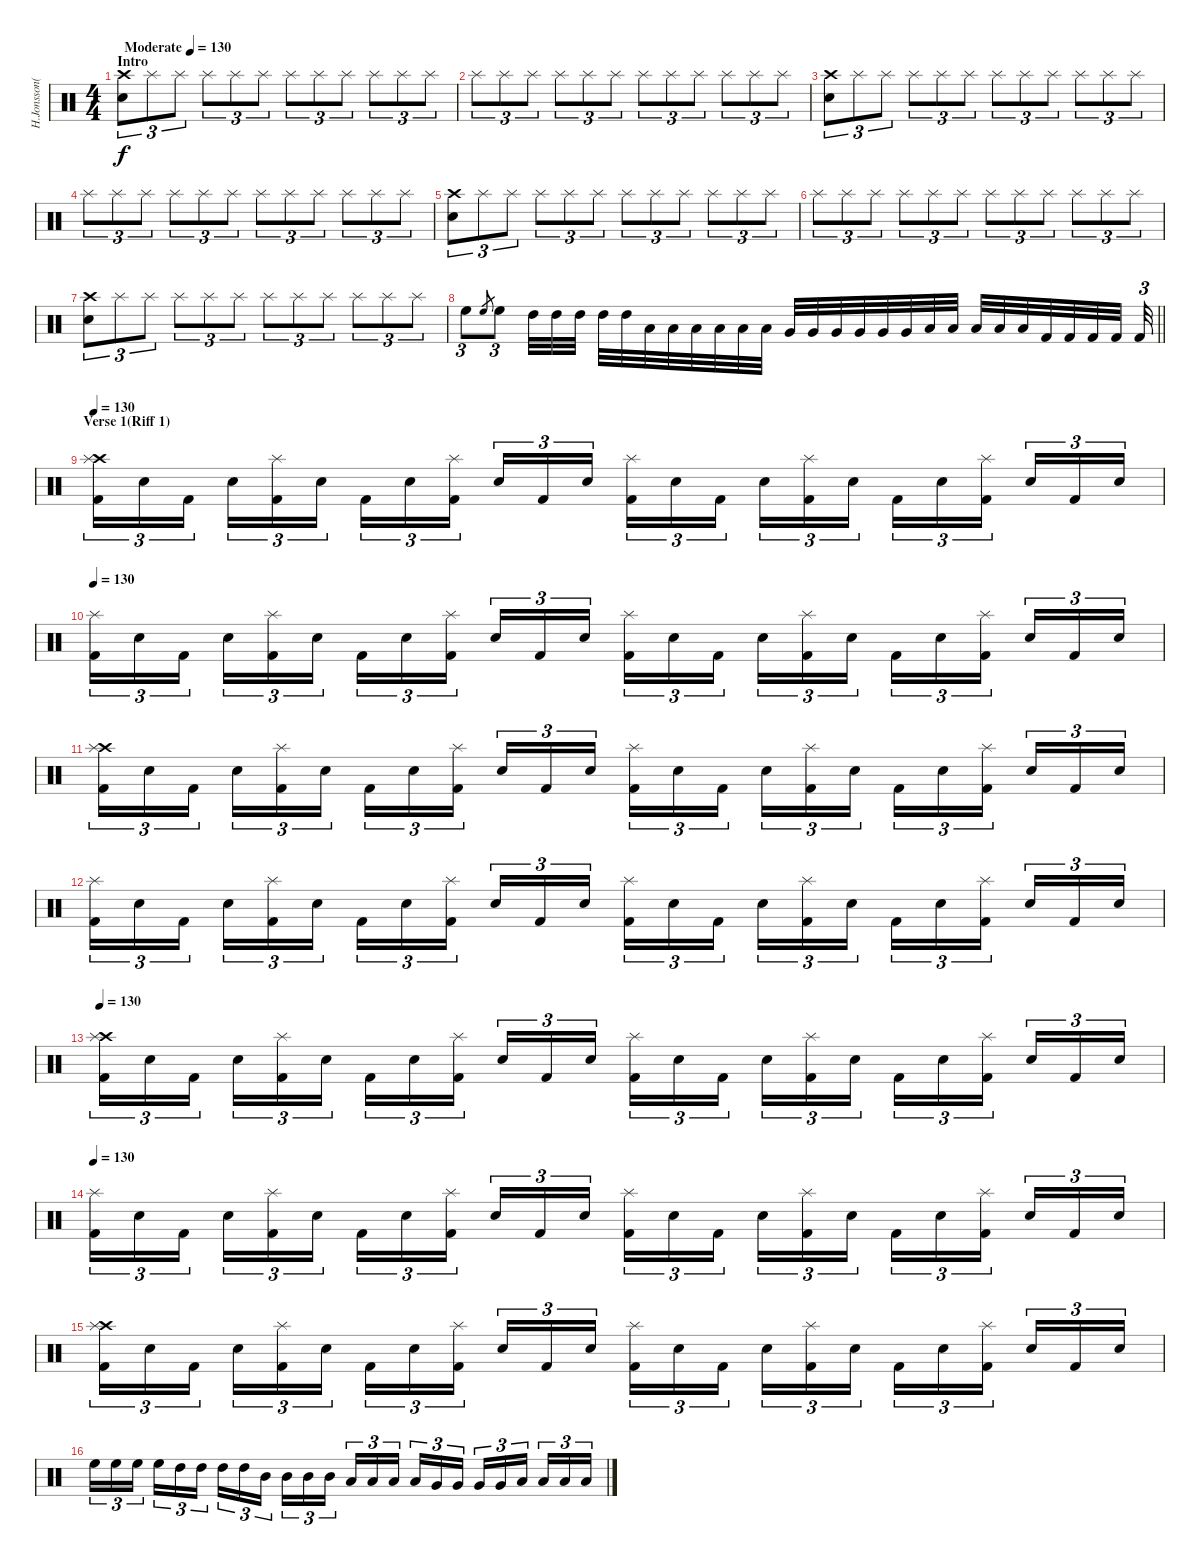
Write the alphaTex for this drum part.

\track ("H.Jonsson(Drums)" "H.Jonsson(") {instrument percussion}
\staff {score}
\articulation defaults
\ts (4 4)
\section ("" "Intro ")
\tempo (130 "Moderate")
\tempo 125
\tempo (130 "Moderate")
\clef neutral
\ks c
("Crash high (hit)" "Snare (hit) 2").8{tu (3 2) dy f} "Splash (hit)".8{tu (3 2)} "Splash (hit)".8{tu (3 2)} "Splash (hit)".8{tu (3 2)} "Splash (hit)".8{tu (3 2)} "Splash (hit)".8{tu (3 2)} "Splash (hit)".8{tu (3 2)} "Splash (hit)".8{tu (3 2)} "Splash (hit)".8{tu (3 2)} "Splash (hit)".8{tu (3 2)} "Splash (hit)".8{tu (3 2)} "Splash (hit)".8{tu (3 2)} |
"Splash (hit)".8{tu (3 2)} "Splash (hit)".8{tu (3 2)} "Splash (hit)".8{tu (3 2)} "Splash (hit)".8{tu (3 2)} "Splash (hit)".8{tu (3 2)} "Splash (hit)".8{tu (3 2)} "Splash (hit)".8{tu (3 2)} "Splash (hit)".8{tu (3 2)} "Splash (hit)".8{tu (3 2)} "Splash (hit)".8{tu (3 2)} "Splash (hit)".8{tu (3 2)} "Splash (hit)".8{tu (3 2)} |
("Crash high (hit)" "Snare (hit) 2").8{tu (3 2)} "Splash (hit)".8{tu (3 2)} "Splash (hit)".8{tu (3 2)} "Splash (hit)".8{tu (3 2)} "Splash (hit)".8{tu (3 2)} "Splash (hit)".8{tu (3 2)} "Splash (hit)".8{tu (3 2)} "Splash (hit)".8{tu (3 2)} "Splash (hit)".8{tu (3 2)} "Splash (hit)".8{tu (3 2)} "Splash (hit)".8{tu (3 2)} "Splash (hit)".8{tu (3 2)} |
"Splash (hit)".8{tu (3 2)} "Splash (hit)".8{tu (3 2)} "Splash (hit)".8{tu (3 2)} "Splash (hit)".8{tu (3 2)} "Splash (hit)".8{tu (3 2)} "Splash (hit)".8{tu (3 2)} "Splash (hit)".8{tu (3 2)} "Splash (hit)".8{tu (3 2)} "Splash (hit)".8{tu (3 2)} "Splash (hit)".8{tu (3 2)} "Splash (hit)".8{tu (3 2)} "Splash (hit)".8{tu (3 2)} |
("Crash high (hit)" "Snare (hit) 2").8{tu (3 2)} "Splash (hit)".8{tu (3 2)} "Splash (hit)".8{tu (3 2)} "Splash (hit)".8{tu (3 2)} "Splash (hit)".8{tu (3 2)} "Splash (hit)".8{tu (3 2)} "Splash (hit)".8{tu (3 2)} "Splash (hit)".8{tu (3 2)} "Splash (hit)".8{tu (3 2)} "Splash (hit)".8{tu (3 2)} "Splash (hit)".8{tu (3 2)} "Splash (hit)".8{tu (3 2)} |
"Splash (hit)".8{tu (3 2)} "Splash (hit)".8{tu (3 2)} "Splash (hit)".8{tu (3 2)} "Splash (hit)".8{tu (3 2)} "Splash (hit)".8{tu (3 2)} "Splash (hit)".8{tu (3 2)} "Splash (hit)".8{tu (3 2)} "Splash (hit)".8{tu (3 2)} "Splash (hit)".8{tu (3 2)} "Splash (hit)".8{tu (3 2)} "Splash (hit)".8{tu (3 2)} "Splash (hit)".8{tu (3 2)} |
("Crash high (hit)" "Snare (hit) 2").8{tu (3 2)} "Splash (hit)".8{tu (3 2)} "Splash (hit)".8{tu (3 2)} "Splash (hit)".8{tu (3 2)} "Splash (hit)".8{tu (3 2)} "Splash (hit)".8{tu (3 2)} "Splash (hit)".8{tu (3 2)} "Splash (hit)".8{tu (3 2)} "Splash (hit)".8{tu (3 2)} "Splash (hit)".8{tu (3 2)} "Splash (hit)".8{tu (3 2)} "Splash (hit)".8{tu (3 2)} |
\barLineRight lightlight "High Floor Tom (hit)".8{tu (3 2)} "High Floor Tom (hit)".8{gr} "High Floor Tom (hit)".8{tu (3 2)} "High Tom (hit)".32 "High Tom (hit)".32 "High Tom (hit)".32 "High Tom (hit)".32 "High Tom (hit)".32 "Low Tom (hit)".32 "Low Tom (hit)".32 "Low Tom (hit)".32 "Low Tom (hit)".32 "Low Tom (hit)".32 "Low Tom (hit)".32 "Very Low Tom (hit)".32 "Very Low Tom (hit)".32 "Very Low Tom (hit)".32 "Very Low Tom (hit)".32 "Very Low Tom (hit)".32 "Very Low Tom (hit)".32 "Low Floor Tom (hit)".32 "Low Floor Tom (hit)".32 "Low Floor Tom (hit)".32 "Low Floor Tom (hit)".32 "Low Floor Tom (hit)".32 "Kick (hit) 2".32 "Kick (hit) 2".32 "Kick (hit) 2".32 "Kick (hit) 2".32{beam splitsecondary} "Kick (hit) 2".32{tu (3 2)}
|
\section ("" "Verse 1(Riff 1)")
\tempo 130
("Crash high (hit)" "Splash (hit)" "Kick (hit) 2").16{tu (3 2)} "Electric Snare (hit)".16{tu (3 2)} "Kick (hit) 2".16{tu (3 2) beam splitsecondary} "Electric Snare (hit)".16{tu (3 2)} ("Splash (hit)" "Kick (hit) 2").16{tu (3 2)} "Electric Snare (hit)".16{tu (3 2)} "Kick (hit) 2".16{tu (3 2)} "Electric Snare (hit)".16{tu (3 2)} ("Splash (hit)" "Kick (hit) 2").16{tu (3 2) beam splitsecondary} "Electric Snare (hit)".16{tu (3 2)} "Kick (hit) 2".16{tu (3 2)} "Electric Snare (hit)".16{tu (3 2)} ("Splash (hit)" "Kick (hit) 2").16{tu (3 2)} "Electric Snare (hit)".16{tu (3 2)} "Kick (hit) 2".16{tu (3 2) beam splitsecondary} "Electric Snare (hit)".16{tu (3 2)} ("Splash (hit)" "Kick (hit) 2").16{tu (3 2)} "Electric Snare (hit)".16{tu (3 2)} "Kick (hit) 2".16{tu (3 2)} "Electric Snare (hit)".16{tu (3 2)} ("Splash (hit)" "Kick (hit) 2").16{tu (3 2) beam splitsecondary} "Electric Snare (hit)".16{tu (3 2)} "Kick (hit) 2".16{tu (3 2)} "Electric Snare (hit)".16{tu (3 2)} |
\tempo 130
("Splash (hit)" "Kick (hit) 2").16{tu (3 2)} "Electric Snare (hit)".16{tu (3 2)} "Kick (hit) 2".16{tu (3 2) beam splitsecondary} "Electric Snare (hit)".16{tu (3 2)} ("Splash (hit)" "Kick (hit) 2").16{tu (3 2)} "Electric Snare (hit)".16{tu (3 2)} "Kick (hit) 2".16{tu (3 2)} "Electric Snare (hit)".16{tu (3 2)} ("Splash (hit)" "Kick (hit) 2").16{tu (3 2) beam splitsecondary} "Electric Snare (hit)".16{tu (3 2)} "Kick (hit) 2".16{tu (3 2)} "Electric Snare (hit)".16{tu (3 2)} ("Splash (hit)" "Kick (hit) 2").16{tu (3 2)} "Electric Snare (hit)".16{tu (3 2)} "Kick (hit) 2".16{tu (3 2) beam splitsecondary} "Electric Snare (hit)".16{tu (3 2)} ("Splash (hit)" "Kick (hit) 2").16{tu (3 2)} "Electric Snare (hit)".16{tu (3 2)} "Kick (hit) 2".16{tu (3 2)} "Electric Snare (hit)".16{tu (3 2)} ("Splash (hit)" "Kick (hit) 2").16{tu (3 2) beam splitsecondary} "Electric Snare (hit)".16{tu (3 2)} "Kick (hit) 2".16{tu (3 2)} "Electric Snare (hit)".16{tu (3 2)} |
("Crash high (hit)" "Splash (hit)" "Kick (hit) 2").16{tu (3 2)} "Electric Snare (hit)".16{tu (3 2)} "Kick (hit) 2".16{tu (3 2) beam splitsecondary} "Electric Snare (hit)".16{tu (3 2)} ("Splash (hit)" "Kick (hit) 2").16{tu (3 2)} "Electric Snare (hit)".16{tu (3 2)} "Kick (hit) 2".16{tu (3 2)} "Electric Snare (hit)".16{tu (3 2)} ("Splash (hit)" "Kick (hit) 2").16{tu (3 2) beam splitsecondary} "Electric Snare (hit)".16{tu (3 2)} "Kick (hit) 2".16{tu (3 2)} "Electric Snare (hit)".16{tu (3 2)} ("Splash (hit)" "Kick (hit) 2").16{tu (3 2)} "Electric Snare (hit)".16{tu (3 2)} "Kick (hit) 2".16{tu (3 2) beam splitsecondary} "Electric Snare (hit)".16{tu (3 2)} ("Splash (hit)" "Kick (hit) 2").16{tu (3 2)} "Electric Snare (hit)".16{tu (3 2)} "Kick (hit) 2".16{tu (3 2)} "Electric Snare (hit)".16{tu (3 2)} ("Splash (hit)" "Kick (hit) 2").16{tu (3 2) beam splitsecondary} "Electric Snare (hit)".16{tu (3 2)} "Kick (hit) 2".16{tu (3 2)} "Electric Snare (hit)".16{tu (3 2)} |
("Splash (hit)" "Kick (hit) 2").16{tu (3 2)} "Electric Snare (hit)".16{tu (3 2)} "Kick (hit) 2".16{tu (3 2) beam splitsecondary} "Electric Snare (hit)".16{tu (3 2)} ("Splash (hit)" "Kick (hit) 2").16{tu (3 2)} "Electric Snare (hit)".16{tu (3 2)} "Kick (hit) 2".16{tu (3 2)} "Electric Snare (hit)".16{tu (3 2)} ("Splash (hit)" "Kick (hit) 2").16{tu (3 2) beam splitsecondary} "Electric Snare (hit)".16{tu (3 2)} "Kick (hit) 2".16{tu (3 2)} "Electric Snare (hit)".16{tu (3 2)} ("Splash (hit)" "Kick (hit) 2").16{tu (3 2)} "Electric Snare (hit)".16{tu (3 2)} "Kick (hit) 2".16{tu (3 2) beam splitsecondary} "Electric Snare (hit)".16{tu (3 2)} ("Splash (hit)" "Kick (hit) 2").16{tu (3 2)} "Electric Snare (hit)".16{tu (3 2)} "Kick (hit) 2".16{tu (3 2)} "Electric Snare (hit)".16{tu (3 2)} ("Splash (hit)" "Kick (hit) 2").16{tu (3 2) beam splitsecondary} "Electric Snare (hit)".16{tu (3 2)} "Kick (hit) 2".16{tu (3 2)} "Electric Snare (hit)".16{tu (3 2)} |
\tempo 130
("Crash high (hit)" "Splash (hit)" "Kick (hit) 2").16{tu (3 2)} "Electric Snare (hit)".16{tu (3 2)} "Kick (hit) 2".16{tu (3 2) beam splitsecondary} "Electric Snare (hit)".16{tu (3 2)} ("Splash (hit)" "Kick (hit) 2").16{tu (3 2)} "Electric Snare (hit)".16{tu (3 2)} "Kick (hit) 2".16{tu (3 2)} "Electric Snare (hit)".16{tu (3 2)} ("Splash (hit)" "Kick (hit) 2").16{tu (3 2) beam splitsecondary} "Electric Snare (hit)".16{tu (3 2)} "Kick (hit) 2".16{tu (3 2)} "Electric Snare (hit)".16{tu (3 2)} ("Splash (hit)" "Kick (hit) 2").16{tu (3 2)} "Electric Snare (hit)".16{tu (3 2)} "Kick (hit) 2".16{tu (3 2) beam splitsecondary} "Electric Snare (hit)".16{tu (3 2)} ("Splash (hit)" "Kick (hit) 2").16{tu (3 2)} "Electric Snare (hit)".16{tu (3 2)} "Kick (hit) 2".16{tu (3 2)} "Electric Snare (hit)".16{tu (3 2)} ("Splash (hit)" "Kick (hit) 2").16{tu (3 2) beam splitsecondary} "Electric Snare (hit)".16{tu (3 2)} "Kick (hit) 2".16{tu (3 2)} "Electric Snare (hit)".16{tu (3 2)} |
\tempo 130
("Splash (hit)" "Kick (hit) 2").16{tu (3 2)} "Electric Snare (hit)".16{tu (3 2)} "Kick (hit) 2".16{tu (3 2) beam splitsecondary} "Electric Snare (hit)".16{tu (3 2)} ("Splash (hit)" "Kick (hit) 2").16{tu (3 2)} "Electric Snare (hit)".16{tu (3 2)} "Kick (hit) 2".16{tu (3 2)} "Electric Snare (hit)".16{tu (3 2)} ("Splash (hit)" "Kick (hit) 2").16{tu (3 2) beam splitsecondary} "Electric Snare (hit)".16{tu (3 2)} "Kick (hit) 2".16{tu (3 2)} "Electric Snare (hit)".16{tu (3 2)} ("Splash (hit)" "Kick (hit) 2").16{tu (3 2)} "Electric Snare (hit)".16{tu (3 2)} "Kick (hit) 2".16{tu (3 2) beam splitsecondary} "Electric Snare (hit)".16{tu (3 2)} ("Splash (hit)" "Kick (hit) 2").16{tu (3 2)} "Electric Snare (hit)".16{tu (3 2)} "Kick (hit) 2".16{tu (3 2)} "Electric Snare (hit)".16{tu (3 2)} ("Splash (hit)" "Kick (hit) 2").16{tu (3 2) beam splitsecondary} "Electric Snare (hit)".16{tu (3 2)} "Kick (hit) 2".16{tu (3 2)} "Electric Snare (hit)".16{tu (3 2)} |
("Crash high (hit)" "Splash (hit)" "Kick (hit) 2").16{tu (3 2)} "Electric Snare (hit)".16{tu (3 2)} "Kick (hit) 2".16{tu (3 2) beam splitsecondary} "Electric Snare (hit)".16{tu (3 2)} ("Splash (hit)" "Kick (hit) 2").16{tu (3 2)} "Electric Snare (hit)".16{tu (3 2)} "Kick (hit) 2".16{tu (3 2)} "Electric Snare (hit)".16{tu (3 2)} ("Splash (hit)" "Kick (hit) 2").16{tu (3 2) beam splitsecondary} "Electric Snare (hit)".16{tu (3 2)} "Kick (hit) 2".16{tu (3 2)} "Electric Snare (hit)".16{tu (3 2)} ("Splash (hit)" "Kick (hit) 2").16{tu (3 2)} "Electric Snare (hit)".16{tu (3 2)} "Kick (hit) 2".16{tu (3 2) beam splitsecondary} "Electric Snare (hit)".16{tu (3 2)} ("Splash (hit)" "Kick (hit) 2").16{tu (3 2)} "Electric Snare (hit)".16{tu (3 2)} "Kick (hit) 2".16{tu (3 2)} "Electric Snare (hit)".16{tu (3 2)} ("Splash (hit)" "Kick (hit) 2").16{tu (3 2) beam splitsecondary} "Electric Snare (hit)".16{tu (3 2)} "Kick (hit) 2".16{tu (3 2)} "Electric Snare (hit)".16{tu (3 2)} |
"High Floor Tom (hit)".16{tu (3 2)} "High Floor Tom (hit)".16{tu (3 2)} "High Floor Tom (hit)".16{tu (3 2) beam splitsecondary} "High Floor Tom (hit)".16{tu (3 2)} "High Tom (hit)".16{tu (3 2)} "High Tom (hit)".16{tu (3 2)} "High Tom (hit)".16{tu (3 2)} "High Tom (hit)".16{tu (3 2)} "Mid Tom (hit)".16{tu (3 2) beam splitsecondary} "Mid Tom (hit)".16{tu (3 2)} "Mid Tom (hit)".16{tu (3 2)} "Mid Tom (hit)".16{tu (3 2)} "Low Tom (hit)".16{tu (3 2)} "Low Tom (hit)".16{tu (3 2)} "Low Tom (hit)".16{tu (3 2) beam splitsecondary} "Low Tom (hit)".16{tu (3 2)} "Very Low Tom (hit)".16{tu (3 2)} "Very Low Tom (hit)".16{tu (3 2)} "Very Low Tom (hit)".16{tu (3 2)} "Very Low Tom (hit)".16{tu (3 2)} "Low Floor Tom (hit)".16{tu (3 2) beam splitsecondary} "Low Floor Tom (hit)".16{tu (3 2)} "Low Floor Tom (hit)".16{tu (3 2)} "Low Floor Tom (hit)".16{tu (3 2)}
